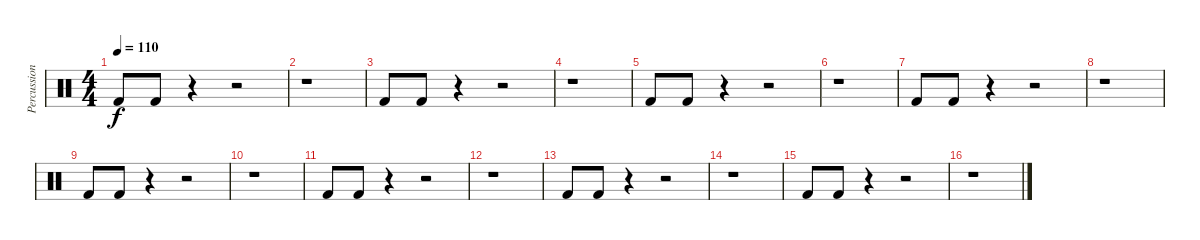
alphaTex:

\track ("Percussions" "Percussion") {instrument percussion}
\staff {score}
\articulation defaults
\ts (4 4)
\tempo 110
\clef neutral
\ks c "Kick (hit) 2".8{dy f} "Kick (hit) 2".8
r.4 r.2 |
r.1 |
"Kick (hit) 2".8 "Kick (hit) 2".8 r.4 r.2 |
r.1 |
"Kick (hit) 2".8 "Kick (hit) 2".8 r.4 r.2 |
r.1 |
"Kick (hit) 2".8 "Kick (hit) 2".8 r.4 r.2 |
r.1 |
"Kick (hit) 2".8 "Kick (hit) 2".8 r.4 r.2 |
r.1 |
"Kick (hit) 2".8 "Kick (hit) 2".8 r.4 r.2 |
r.1 |
"Kick (hit) 2".8 "Kick (hit) 2".8 r.4 r.2 |
r.1 |
"Kick (hit) 2".8 "Kick (hit) 2".8 r.4 r.2 |
r.1
